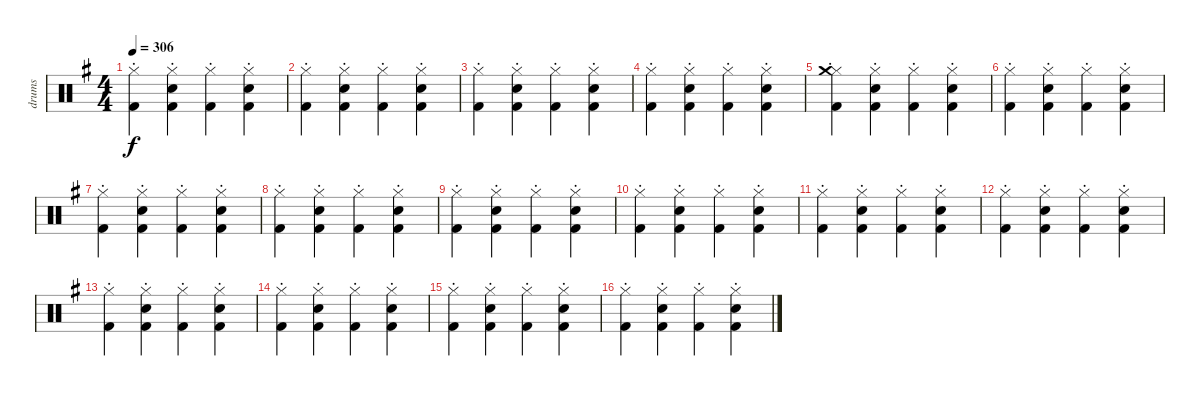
\track ("drums" "drums") {instrument percussion}
\staff {score}
\articulation defaults
\ts (4 4)
\tempo 306
\clef neutral
\ks g
("Hi-Hat (closed)"{st} "Kick (hit) 2").4{dy f} ("Hi-Hat (closed)"{st} "Electric Snare (hit)" "Kick (hit) 2").4 ("Hi-Hat (closed)"{st} "Kick (hit) 2").4 ("Hi-Hat (closed)"{st} "Electric Snare (hit)" "Kick (hit) 2").4 |
("Hi-Hat (closed)"{st} "Kick (hit) 2").4 ("Hi-Hat (closed)"{st} "Electric Snare (hit)" "Kick (hit) 2").4 ("Hi-Hat (closed)"{st} "Kick (hit) 2").4 ("Hi-Hat (closed)"{st} "Electric Snare (hit)" "Kick (hit) 2").4 |
("Hi-Hat (closed)"{st} "Kick (hit) 2").4 ("Hi-Hat (closed)"{st} "Electric Snare (hit)" "Kick (hit) 2").4 ("Hi-Hat (closed)"{st} "Kick (hit) 2").4 ("Hi-Hat (closed)"{st} "Electric Snare (hit)" "Kick (hit) 2").4 |
("Hi-Hat (closed)"{st} "Kick (hit) 2").4 ("Hi-Hat (closed)"{st} "Electric Snare (hit)" "Kick (hit) 2").4 ("Hi-Hat (closed)"{st} "Kick (hit) 2").4 ("Hi-Hat (closed)"{st} "Electric Snare (hit)" "Kick (hit) 2").4 |
("Hi-Hat (closed)"{st} "Crash medium (hit)" "Kick (hit) 2").4 ("Hi-Hat (closed)"{st} "Electric Snare (hit)" "Kick (hit) 2").4 ("Hi-Hat (closed)"{st} "Kick (hit) 2").4 ("Hi-Hat (closed)"{st} "Electric Snare (hit)" "Kick (hit) 2").4 |
("Hi-Hat (closed)"{st} "Kick (hit) 2").4 ("Hi-Hat (closed)"{st} "Electric Snare (hit)" "Kick (hit) 2").4 ("Hi-Hat (closed)"{st} "Kick (hit) 2").4 ("Hi-Hat (closed)"{st} "Electric Snare (hit)" "Kick (hit) 2").4 |
("Hi-Hat (closed)"{st} "Kick (hit) 2").4 ("Hi-Hat (closed)"{st} "Electric Snare (hit)" "Kick (hit) 2").4 ("Hi-Hat (closed)"{st} "Kick (hit) 2").4 ("Hi-Hat (closed)"{st} "Electric Snare (hit)" "Kick (hit) 2").4 |
("Hi-Hat (closed)"{st} "Kick (hit) 2").4 ("Hi-Hat (closed)"{st} "Electric Snare (hit)" "Kick (hit) 2").4 ("Hi-Hat (closed)"{st} "Kick (hit) 2").4 ("Hi-Hat (closed)"{st} "Electric Snare (hit)" "Kick (hit) 2").4 |
("Hi-Hat (closed)"{st} "Kick (hit) 2").4 ("Hi-Hat (closed)"{st} "Electric Snare (hit)" "Kick (hit) 2").4 ("Hi-Hat (closed)"{st} "Kick (hit) 2").4 ("Hi-Hat (closed)"{st} "Electric Snare (hit)" "Kick (hit) 2").4 |
("Hi-Hat (closed)"{st} "Kick (hit) 2").4 ("Hi-Hat (closed)"{st} "Electric Snare (hit)" "Kick (hit) 2").4 ("Hi-Hat (closed)"{st} "Kick (hit) 2").4 ("Hi-Hat (closed)"{st} "Electric Snare (hit)" "Kick (hit) 2").4 |
("Hi-Hat (closed)"{st} "Kick (hit) 2").4 ("Hi-Hat (closed)"{st} "Electric Snare (hit)" "Kick (hit) 2").4 ("Hi-Hat (closed)"{st} "Kick (hit) 2").4 ("Hi-Hat (closed)"{st} "Electric Snare (hit)" "Kick (hit) 2").4 |
("Hi-Hat (closed)"{st} "Kick (hit) 2").4 ("Hi-Hat (closed)"{st} "Electric Snare (hit)" "Kick (hit) 2").4 ("Hi-Hat (closed)"{st} "Kick (hit) 2").4 ("Hi-Hat (closed)"{st} "Electric Snare (hit)" "Kick (hit) 2").4 |
("Hi-Hat (closed)"{st} "Kick (hit) 2").4 ("Hi-Hat (closed)"{st} "Electric Snare (hit)" "Kick (hit) 2").4 ("Hi-Hat (closed)"{st} "Kick (hit) 2").4 ("Hi-Hat (closed)"{st} "Electric Snare (hit)" "Kick (hit) 2").4 |
("Hi-Hat (closed)"{st} "Kick (hit) 2").4 ("Hi-Hat (closed)"{st} "Electric Snare (hit)" "Kick (hit) 2").4 ("Hi-Hat (closed)"{st} "Kick (hit) 2").4 ("Hi-Hat (closed)"{st} "Electric Snare (hit)" "Kick (hit) 2").4 |
("Hi-Hat (closed)"{st} "Kick (hit) 2").4 ("Hi-Hat (closed)"{st} "Electric Snare (hit)" "Kick (hit) 2").4 ("Hi-Hat (closed)"{st} "Kick (hit) 2").4 ("Hi-Hat (closed)"{st} "Electric Snare (hit)" "Kick (hit) 2").4 |
("Hi-Hat (closed)"{st} "Kick (hit) 2").4 ("Hi-Hat (closed)"{st} "Electric Snare (hit)" "Kick (hit) 2").4 ("Hi-Hat (closed)"{st} "Kick (hit) 2").4 ("Hi-Hat (closed)"{st} "Electric Snare (hit)" "Kick (hit) 2").4
